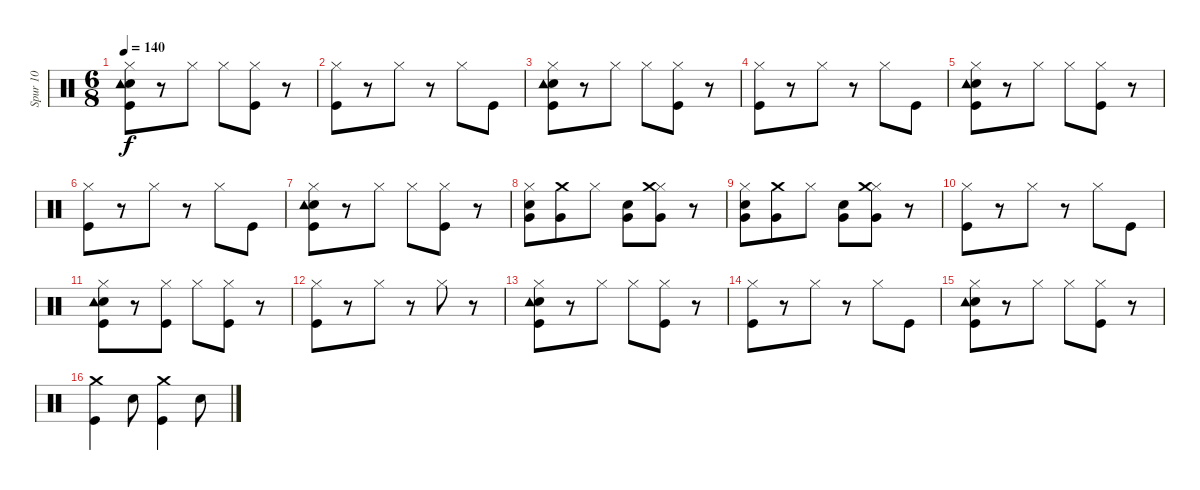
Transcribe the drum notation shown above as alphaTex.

\track ("Spur 10" "Spur 10") {instrument percussion}
\staff {score}
\articulation defaults
\ts (6 8)
\tempo 140
\clef neutral
\ks c
("Kick (hit)" "Snare (hit) 2" "Tambourine (hit)" "Hi-Hat (closed)").8{dy f} r.8 "Hi-Hat (closed)".8 "Hi-Hat (closed)".8 ("Kick (hit)" "Hi-Hat (closed)").8 r.8 |
("Kick (hit)" "Hi-Hat (closed)").8 r.8 "Hi-Hat (closed)".8 r.8 "Hi-Hat (closed)".8 "Kick (hit)".8 |
("Kick (hit)" "Snare (hit) 2" "Tambourine (hit)" "Hi-Hat (closed)").8 r.8 "Hi-Hat (closed)".8 "Hi-Hat (closed)".8 ("Kick (hit)" "Hi-Hat (closed)").8 r.8 |
("Kick (hit)" "Hi-Hat (closed)").8 r.8 "Hi-Hat (closed)".8 r.8 "Hi-Hat (closed)".8 "Kick (hit)".8 |
("Kick (hit)" "Snare (hit) 2" "Tambourine (hit)" "Hi-Hat (closed)").8 r.8 "Hi-Hat (closed)".8 "Hi-Hat (closed)".8 ("Kick (hit)" "Hi-Hat (closed)").8 r.8 |
("Kick (hit)" "Hi-Hat (closed)").8 r.8 "Hi-Hat (closed)".8 r.8 "Hi-Hat (closed)".8 "Kick (hit)".8 |
("Kick (hit)" "Snare (hit) 2" "Tambourine (hit)" "Hi-Hat (closed)").8 r.8 "Hi-Hat (closed)".8 "Hi-Hat (closed)".8 ("Kick (hit)" "Hi-Hat (closed)").8 r.8 |
("Snare (hit) 2" "Hi-Hat (closed)" "Very Low Tom (hit)").8 ("Crash medium (hit)" "Very Low Tom (hit)").8 "Hi-Hat (closed)".8 ("Snare (hit) 2" "Very Low Tom (hit)").8 ("Hi-Hat (closed)" "Crash medium (hit)" "Very Low Tom (hit)").8 r.8 |
("Snare (hit) 2" "Hi-Hat (closed)" "Very Low Tom (hit)").8 ("Crash medium (hit)" "Very Low Tom (hit)").8 "Hi-Hat (closed)".8 ("Snare (hit) 2" "Very Low Tom (hit)").8 ("Hi-Hat (closed)" "Crash medium (hit)" "Very Low Tom (hit)").8 r.8 |
("Kick (hit)" "Hi-Hat (closed)").8 r.8 "Hi-Hat (closed)".8 r.8 "Hi-Hat (closed)".8 "Kick (hit)".8 |
("Kick (hit)" "Snare (hit) 2" "Tambourine (hit)" "Hi-Hat (closed)").8 r.8 ("Kick (hit)" "Hi-Hat (closed)").8 "Hi-Hat (closed)".8 ("Kick (hit)" "Hi-Hat (closed)").8 r.8 |
("Kick (hit)" "Hi-Hat (closed)").8 r.8 "Hi-Hat (closed)".8 r.8 "Hi-Hat (closed)".8 r.8 |
("Kick (hit)" "Snare (hit) 2" "Tambourine (hit)" "Hi-Hat (closed)").8 r.8 "Hi-Hat (closed)".8 "Hi-Hat (closed)".8 ("Kick (hit)" "Hi-Hat (closed)").8 r.8 |
("Kick (hit)" "Hi-Hat (closed)").8 r.8 "Hi-Hat (closed)".8 r.8 "Hi-Hat (closed)".8 "Kick (hit)".8 |
("Kick (hit)" "Snare (hit) 2" "Tambourine (hit)" "Hi-Hat (closed)").8 r.8 "Hi-Hat (closed)".8 "Hi-Hat (closed)".8 ("Kick (hit)" "Hi-Hat (closed)").8 r.8 |
("Kick (hit)" "Crash medium (hit)").4 "Snare (hit) 2".8 ("Kick (hit)" "Crash medium (hit)").4 "Snare (hit) 2".8
